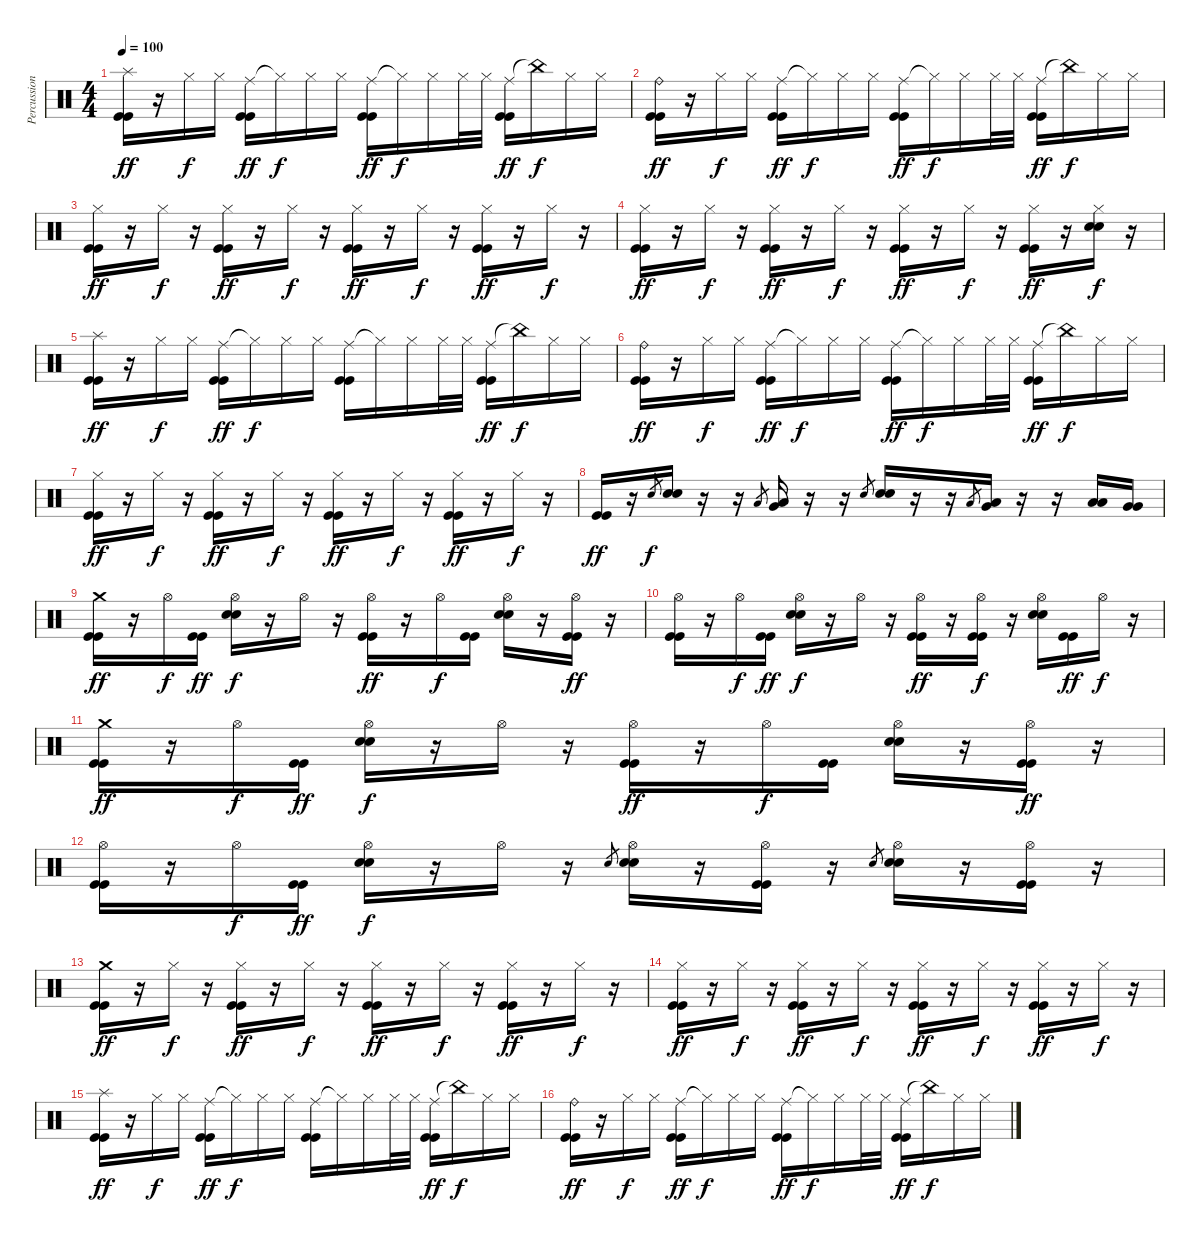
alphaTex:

\track ("Percussions" "Percussion") {instrument percussion}
\staff {score}
\articulation defaults
\ts (4 4)
\tempo 100
\clef neutral
\ks c
("Splash (hit)" "Kick (hit)" "Kick (hit)").16{dy ff} r.16 "Hi-Hat (closed)".16{dy f} "Hi-Hat (closed)".16 ("Ride (middle)" "Kick (hit)" "Kick (hit)").16{dy ff} "Hi-Hat (closed)"{t}.16{dy f} "Hi-Hat (closed)".16 "Hi-Hat (closed)".16 ("Ride (middle)" "Kick (hit)" "Kick (hit)").16{dy ff} "Hi-Hat (closed)"{t}.16{dy f} "Hi-Hat (closed)".16 "Hi-Hat (closed)".32 "Hi-Hat (closed)".32 ("Ride (middle)" "Kick (hit)" "Kick (hit)").16{dy ff} "China (hit)"{t}.16{dy f} "Hi-Hat (closed)".16 "Hi-Hat (closed)".16 |
("Ride (bell)" "Kick (hit)" "Kick (hit)").16{dy ff} r.16 "Hi-Hat (closed)".16{dy f} "Hi-Hat (closed)".16 ("Ride (middle)" "Kick (hit)" "Kick (hit)").16{dy ff} "Hi-Hat (closed)"{t}.16{dy f} "Hi-Hat (closed)".16 "Hi-Hat (closed)".16 ("Ride (middle)" "Kick (hit)" "Kick (hit)").16{dy ff} "Hi-Hat (closed)"{t}.16{dy f} "Hi-Hat (closed)".16 "Hi-Hat (closed)".32 "Hi-Hat (closed)".32 ("Ride (middle)" "Kick (hit)" "Kick (hit)").16{dy ff} "China (hit)"{t}.16{dy f} "Hi-Hat (closed)".16 "Hi-Hat (closed)".16 |
("Hi-Hat (closed)" "Kick (hit)" "Kick (hit)").16{dy ff} r.16 "Hi-Hat (closed)".16{dy f} r.16 ("Hi-Hat (closed)" "Kick (hit)" "Kick (hit)").16{dy ff} r.16 "Hi-Hat (closed)".16{dy f} r.16 ("Hi-Hat (closed)" "Kick (hit)" "Kick (hit)").16{dy ff} r.16 "Hi-Hat (closed)".16{dy f} r.16 ("Hi-Hat (closed)" "Kick (hit)" "Kick (hit)").16{dy ff} r.16 "Hi-Hat (closed)".16{dy f} r.16 |
("Hi-Hat (closed)" "Kick (hit)" "Kick (hit)").16{dy ff} r.16 "Hi-Hat (closed)".16{dy f} r.16 ("Hi-Hat (closed)" "Kick (hit)" "Kick (hit)").16{dy ff} r.16 "Hi-Hat (closed)".16{dy f} r.16 ("Hi-Hat (closed)" "Kick (hit)" "Kick (hit)").16{dy ff} r.16 "Hi-Hat (closed)".16{dy f} r.16 ("Hi-Hat (closed)" "Kick (hit)" "Kick (hit)").16{dy ff} r.16 ("Hi-Hat (closed)" "Electric Snare (hit)" "Electric Snare (hit)").16{dy f} r.16 |
("Splash (hit)" "Kick (hit)" "Kick (hit)").16{dy ff} r.16 "Hi-Hat (closed)".16{dy f} "Hi-Hat (closed)".16 ("Ride (middle)" "Kick (hit)" "Kick (hit)").16{dy ff} "Hi-Hat (closed)"{t}.16{dy f} "Hi-Hat (closed)".16 "Hi-Hat (closed)".16 ("Ride (middle)" "Kick (hit)" "Kick (hit)").16 "Hi-Hat (closed)"{t}.16 "Hi-Hat (closed)".16 "Hi-Hat (closed)".32 "Hi-Hat (closed)".32 ("Ride (middle)" "Kick (hit)" "Kick (hit)").16{dy ff} "China (hit)"{t}.16{dy f} "Hi-Hat (closed)".16 "Hi-Hat (closed)".16 |
("Ride (bell)" "Kick (hit)" "Kick (hit)").16{dy ff} r.16 "Hi-Hat (closed)".16{dy f} "Hi-Hat (closed)".16 ("Ride (middle)" "Kick (hit)" "Kick (hit)").16{dy ff} "Hi-Hat (closed)"{t}.16{dy f} "Hi-Hat (closed)".16 "Hi-Hat (closed)".16 ("Ride (middle)" "Kick (hit)" "Kick (hit)").16{dy ff} "Hi-Hat (closed)"{t}.16{dy f} "Hi-Hat (closed)".16 "Hi-Hat (closed)".32 "Hi-Hat (closed)".32 ("Ride (middle)" "Kick (hit)" "Kick (hit)").16{dy ff} "China (hit)"{t}.16{dy f} "Hi-Hat (closed)".16 "Hi-Hat (closed)".16 |
("Hi-Hat (closed)" "Kick (hit)" "Kick (hit)").16{dy ff} r.16 "Hi-Hat (closed)".16{dy f} r.16 ("Hi-Hat (closed)" "Kick (hit)" "Kick (hit)").16{dy ff} r.16 "Hi-Hat (closed)".16{dy f} r.16 ("Hi-Hat (closed)" "Kick (hit)" "Kick (hit)").16{dy ff} r.16 "Hi-Hat (closed)".16{dy f} r.16 ("Hi-Hat (closed)" "Kick (hit)" "Kick (hit)").16{dy ff} r.16 "Hi-Hat (closed)".16{dy f} r.16 |
("Kick (hit)" "Kick (hit)").16{dy ff} r.16 "Electric Snare (hit)".8{gr dy f} ("Electric Snare (hit)" "Electric Snare (hit)").16 r.16 r.16 "Low Tom (hit)".8{gr} ("Low Tom (hit)" "Very Low Tom (hit)").16 r.16 r.16 "Electric Snare (hit)".8{gr} ("Electric Snare (hit)" "Electric Snare (hit)").16 r.16 r.16 "Low Tom (hit)".8{gr} ("Low Tom (hit)" "Very Low Tom (hit)").16 r.16 r.16 ("Low Tom (hit)" "Low Tom (hit)").16 ("Very Low Tom (hit)" "Very Low Tom (hit)").16 |
("Crash medium (hit)" "Kick (hit)" "Kick (hit)").16{dy ff} r.16 "Hi-Hat (open)".16{dy f} ("Kick (hit)" "Kick (hit)").16{dy ff} ("Hi-Hat (open)" "Electric Snare (hit)" "Electric Snare (hit)").16{dy f} r.16 "Hi-Hat (open)".16 r.16 ("Hi-Hat (open)" "Kick (hit)" "Kick (hit)").16{dy ff} r.16 "Hi-Hat (open)".16{dy f} ("Kick (hit)" "Kick (hit)").16 ("Hi-Hat (open)" "Electric Snare (hit)" "Electric Snare (hit)").16 r.16 ("Hi-Hat (open)" "Kick (hit)" "Kick (hit)").16{dy ff} r.16 |
("Hi-Hat (open)" "Kick (hit)" "Kick (hit)").16 r.16 "Hi-Hat (open)".16{dy f} ("Kick (hit)" "Kick (hit)").16{dy ff} ("Hi-Hat (open)" "Electric Snare (hit)" "Electric Snare (hit)").16{dy f} r.16 "Hi-Hat (open)".16 r.16 ("Hi-Hat (open)" "Kick (hit)" "Kick (hit)").16{dy ff} r.16 ("Hi-Hat (open)" "Kick (hit)" "Kick (hit)").16{dy f} r.16 ("Hi-Hat (open)" "Electric Snare (hit)" "Electric Snare (hit)").16 ("Kick (hit)" "Kick (hit)").16{dy ff} "Hi-Hat (open)".16{dy f} r.16 |
("Crash medium (hit)" "Kick (hit)" "Kick (hit)").16{dy ff} r.16 "Hi-Hat (open)".16{dy f} ("Kick (hit)" "Kick (hit)").16{dy ff} ("Hi-Hat (open)" "Electric Snare (hit)" "Electric Snare (hit)").16{dy f} r.16 "Hi-Hat (open)".16 r.16 ("Hi-Hat (open)" "Kick (hit)" "Kick (hit)").16{dy ff} r.16 "Hi-Hat (open)".16{dy f} ("Kick (hit)" "Kick (hit)").16 ("Hi-Hat (open)" "Electric Snare (hit)" "Electric Snare (hit)").16 r.16 ("Hi-Hat (open)" "Kick (hit)" "Kick (hit)").16{dy ff} r.16 |
("Hi-Hat (open)" "Kick (hit)" "Kick (hit)").16 r.16 "Hi-Hat (open)".16{dy f} ("Kick (hit)" "Kick (hit)").16{dy ff} ("Hi-Hat (open)" "Electric Snare (hit)" "Electric Snare (hit)").16{dy f} r.16 "Hi-Hat (open)".16 r.16 "Electric Snare (hit)".8{gr} ("Hi-Hat (open)" "Electric Snare (hit)" "Electric Snare (hit)").16 r.16 ("Hi-Hat (open)" "Kick (hit)" "Kick (hit)").16 r.16 "Electric Snare (hit)".8{gr} ("Hi-Hat (open)" "Electric Snare (hit)" "Electric Snare (hit)").16 r.16 ("Hi-Hat (open)" "Kick (hit)" "Kick (hit)").16 r.16 |
("Crash medium (hit)" "Kick (hit)" "Kick (hit)").16{dy ff} r.16 "Hi-Hat (closed)".16{dy f} r.16 ("Hi-Hat (closed)" "Kick (hit)" "Kick (hit)").16{dy ff} r.16 "Hi-Hat (closed)".16{dy f} r.16 ("Hi-Hat (closed)" "Kick (hit)" "Kick (hit)").16{dy ff} r.16 "Hi-Hat (closed)".16{dy f} r.16 ("Hi-Hat (closed)" "Kick (hit)" "Kick (hit)").16{dy ff} r.16 "Hi-Hat (closed)".16{dy f} r.16 |
("Hi-Hat (closed)" "Kick (hit)" "Kick (hit)").16{dy ff} r.16 "Hi-Hat (closed)".16{dy f} r.16 ("Hi-Hat (closed)" "Kick (hit)" "Kick (hit)").16{dy ff} r.16 "Hi-Hat (closed)".16{dy f} r.16 ("Hi-Hat (closed)" "Kick (hit)" "Kick (hit)").16{dy ff} r.16 "Hi-Hat (closed)".16{dy f} r.16 ("Hi-Hat (closed)" "Kick (hit)" "Kick (hit)").16{dy ff} r.16 "Hi-Hat (closed)".16{dy f} r.16 |
("Splash (hit)" "Kick (hit)" "Kick (hit)").16{dy ff} r.16 "Hi-Hat (closed)".16{dy f} "Hi-Hat (closed)".16 ("Ride (middle)" "Kick (hit)" "Kick (hit)").16{dy ff} "Hi-Hat (closed)"{t}.16{dy f} "Hi-Hat (closed)".16 "Hi-Hat (closed)".16 ("Ride (middle)" "Kick (hit)" "Kick (hit)").16 "Hi-Hat (closed)"{t}.16 "Hi-Hat (closed)".16 "Hi-Hat (closed)".32 "Hi-Hat (closed)".32 ("Ride (middle)" "Kick (hit)" "Kick (hit)").16{dy ff} "China (hit)"{t}.16{dy f} "Hi-Hat (closed)".16 "Hi-Hat (closed)".16 |
("Ride (bell)" "Kick (hit)" "Kick (hit)").16{dy ff} r.16 "Hi-Hat (closed)".16{dy f} "Hi-Hat (closed)".16 ("Ride (middle)" "Kick (hit)" "Kick (hit)").16{dy ff} "Hi-Hat (closed)"{t}.16{dy f} "Hi-Hat (closed)".16 "Hi-Hat (closed)".16 ("Ride (middle)" "Kick (hit)" "Kick (hit)").16{dy ff} "Hi-Hat (closed)"{t}.16{dy f} "Hi-Hat (closed)".16 "Hi-Hat (closed)".32 "Hi-Hat (closed)".32 ("Ride (middle)" "Kick (hit)" "Kick (hit)").16{dy ff} "China (hit)"{t}.16{dy f} "Hi-Hat (closed)".16 "Hi-Hat (closed)".16
